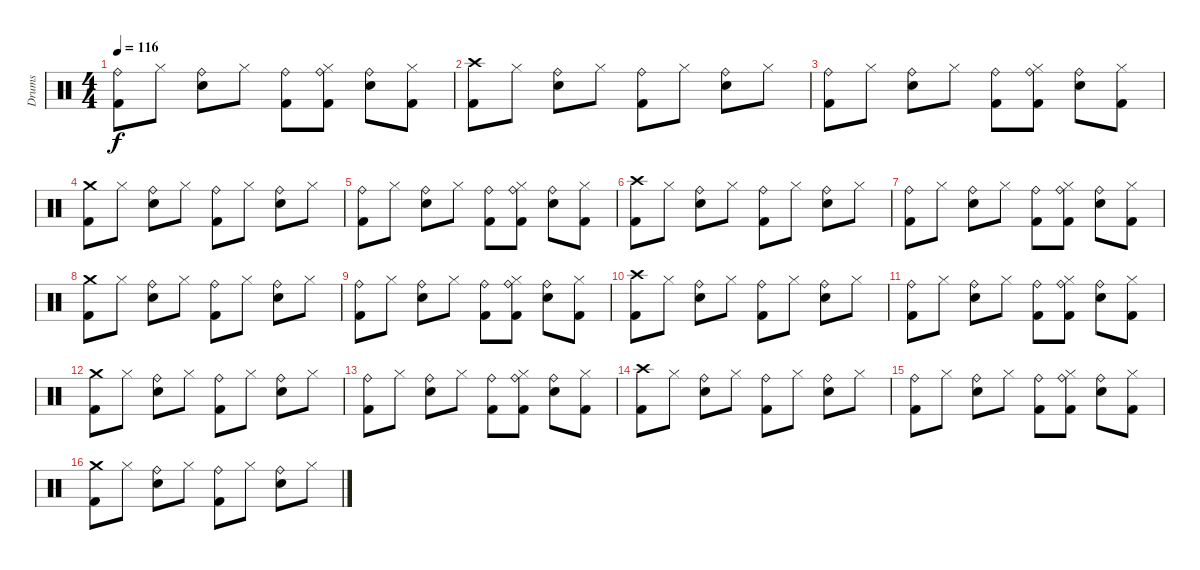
\track ("Drums" "Drums") {instrument percussion}
\staff {score}
\articulation defaults
\ts (4 4)
\tempo 116
\clef neutral
\ks c
("Kick (hit) 2" "Ride (bell)").8{dy f} "Hi-Hat (closed)".8 ("Snare (hit) 2" "Ride (bell)").8 "Hi-Hat (closed)".8 ("Kick (hit) 2" "Ride (bell)").8 ("Kick (hit) 2" "Hi-Hat (closed)" "Ride (bell)").8 ("Snare (hit) 2" "Ride (bell)").8 ("Kick (hit) 2" "Hi-Hat (closed)").8 |
("Kick (hit) 2" "Crash high (hit)").8 "Hi-Hat (closed)".8 ("Snare (hit) 2" "Ride (bell)").8 "Hi-Hat (closed)".8 ("Kick (hit) 2" "Ride (bell)").8 "Hi-Hat (closed)".8 ("Snare (hit) 2" "Ride (bell)").8 "Hi-Hat (closed)".8 |
("Kick (hit) 2" "Ride (bell)").8 "Hi-Hat (closed)".8 ("Snare (hit) 2" "Ride (bell)").8 "Hi-Hat (closed)".8 ("Kick (hit) 2" "Ride (bell)").8 ("Kick (hit) 2" "Hi-Hat (closed)" "Ride (bell)").8 ("Snare (hit) 2" "Ride (bell)").8 ("Kick (hit) 2" "Hi-Hat (closed)").8 |
("Kick (hit) 2" "Crash medium (hit)").8 "Hi-Hat (closed)".8 ("Snare (hit) 2" "Ride (bell)").8 "Hi-Hat (closed)".8 ("Kick (hit) 2" "Ride (bell)").8 "Hi-Hat (closed)".8 ("Snare (hit) 2" "Ride (bell)").8 "Hi-Hat (closed)".8 |
("Kick (hit) 2" "Ride (bell)").8 "Hi-Hat (closed)".8 ("Snare (hit) 2" "Ride (bell)").8 "Hi-Hat (closed)".8 ("Kick (hit) 2" "Ride (bell)").8 ("Kick (hit) 2" "Hi-Hat (closed)" "Ride (bell)").8 ("Snare (hit) 2" "Ride (bell)").8 ("Kick (hit) 2" "Hi-Hat (closed)").8 |
("Kick (hit) 2" "Crash high (hit)").8 "Hi-Hat (closed)".8 ("Snare (hit) 2" "Ride (bell)").8 "Hi-Hat (closed)".8 ("Kick (hit) 2" "Ride (bell)").8 "Hi-Hat (closed)".8 ("Snare (hit) 2" "Ride (bell)").8 "Hi-Hat (closed)".8 |
("Kick (hit) 2" "Ride (bell)").8 "Hi-Hat (closed)".8 ("Snare (hit) 2" "Ride (bell)").8 "Hi-Hat (closed)".8 ("Kick (hit) 2" "Ride (bell)").8 ("Kick (hit) 2" "Hi-Hat (closed)" "Ride (bell)").8 ("Snare (hit) 2" "Ride (bell)").8 ("Kick (hit) 2" "Hi-Hat (closed)").8 |
("Kick (hit) 2" "Crash medium (hit)").8 "Hi-Hat (closed)".8 ("Snare (hit) 2" "Ride (bell)").8 "Hi-Hat (closed)".8 ("Kick (hit) 2" "Ride (bell)").8 "Hi-Hat (closed)".8 ("Snare (hit) 2" "Ride (bell)").8 "Hi-Hat (closed)".8 |
("Kick (hit) 2" "Ride (bell)").8 "Hi-Hat (closed)".8 ("Snare (hit) 2" "Ride (bell)").8 "Hi-Hat (closed)".8 ("Kick (hit) 2" "Ride (bell)").8 ("Kick (hit) 2" "Hi-Hat (closed)" "Ride (bell)").8 ("Snare (hit) 2" "Ride (bell)").8 ("Kick (hit) 2" "Hi-Hat (closed)").8 |
("Kick (hit) 2" "Crash high (hit)").8 "Hi-Hat (closed)".8 ("Snare (hit) 2" "Ride (bell)").8 "Hi-Hat (closed)".8 ("Kick (hit) 2" "Ride (bell)").8 "Hi-Hat (closed)".8 ("Snare (hit) 2" "Ride (bell)").8 "Hi-Hat (closed)".8 |
("Kick (hit) 2" "Ride (bell)").8 "Hi-Hat (closed)".8 ("Snare (hit) 2" "Ride (bell)").8 "Hi-Hat (closed)".8 ("Kick (hit) 2" "Ride (bell)").8 ("Kick (hit) 2" "Hi-Hat (closed)" "Ride (bell)").8 ("Snare (hit) 2" "Ride (bell)").8 ("Kick (hit) 2" "Hi-Hat (closed)").8 |
("Kick (hit) 2" "Crash medium (hit)").8 "Hi-Hat (closed)".8 ("Snare (hit) 2" "Ride (bell)").8 "Hi-Hat (closed)".8 ("Kick (hit) 2" "Ride (bell)").8 "Hi-Hat (closed)".8 ("Snare (hit) 2" "Ride (bell)").8 "Hi-Hat (closed)".8 |
("Kick (hit) 2" "Ride (bell)").8 "Hi-Hat (closed)".8 ("Snare (hit) 2" "Ride (bell)").8 "Hi-Hat (closed)".8 ("Kick (hit) 2" "Ride (bell)").8 ("Kick (hit) 2" "Hi-Hat (closed)" "Ride (bell)").8 ("Snare (hit) 2" "Ride (bell)").8 ("Kick (hit) 2" "Hi-Hat (closed)").8 |
("Kick (hit) 2" "Crash high (hit)").8 "Hi-Hat (closed)".8 ("Snare (hit) 2" "Ride (bell)").8 "Hi-Hat (closed)".8 ("Kick (hit) 2" "Ride (bell)").8 "Hi-Hat (closed)".8 ("Snare (hit) 2" "Ride (bell)").8 "Hi-Hat (closed)".8 |
("Kick (hit) 2" "Ride (bell)").8 "Hi-Hat (closed)".8 ("Snare (hit) 2" "Ride (bell)").8 "Hi-Hat (closed)".8 ("Kick (hit) 2" "Ride (bell)").8 ("Kick (hit) 2" "Hi-Hat (closed)" "Ride (bell)").8 ("Snare (hit) 2" "Ride (bell)").8 ("Kick (hit) 2" "Hi-Hat (closed)").8 |
("Kick (hit) 2" "Crash medium (hit)").8{volume 9} "Hi-Hat (closed)".8 ("Snare (hit) 2" "Ride (bell)").8 "Hi-Hat (closed)".8 ("Kick (hit) 2" "Ride (bell)").8 "Hi-Hat (closed)".8 ("Snare (hit) 2" "Ride (bell)").8 "Hi-Hat (closed)".8
